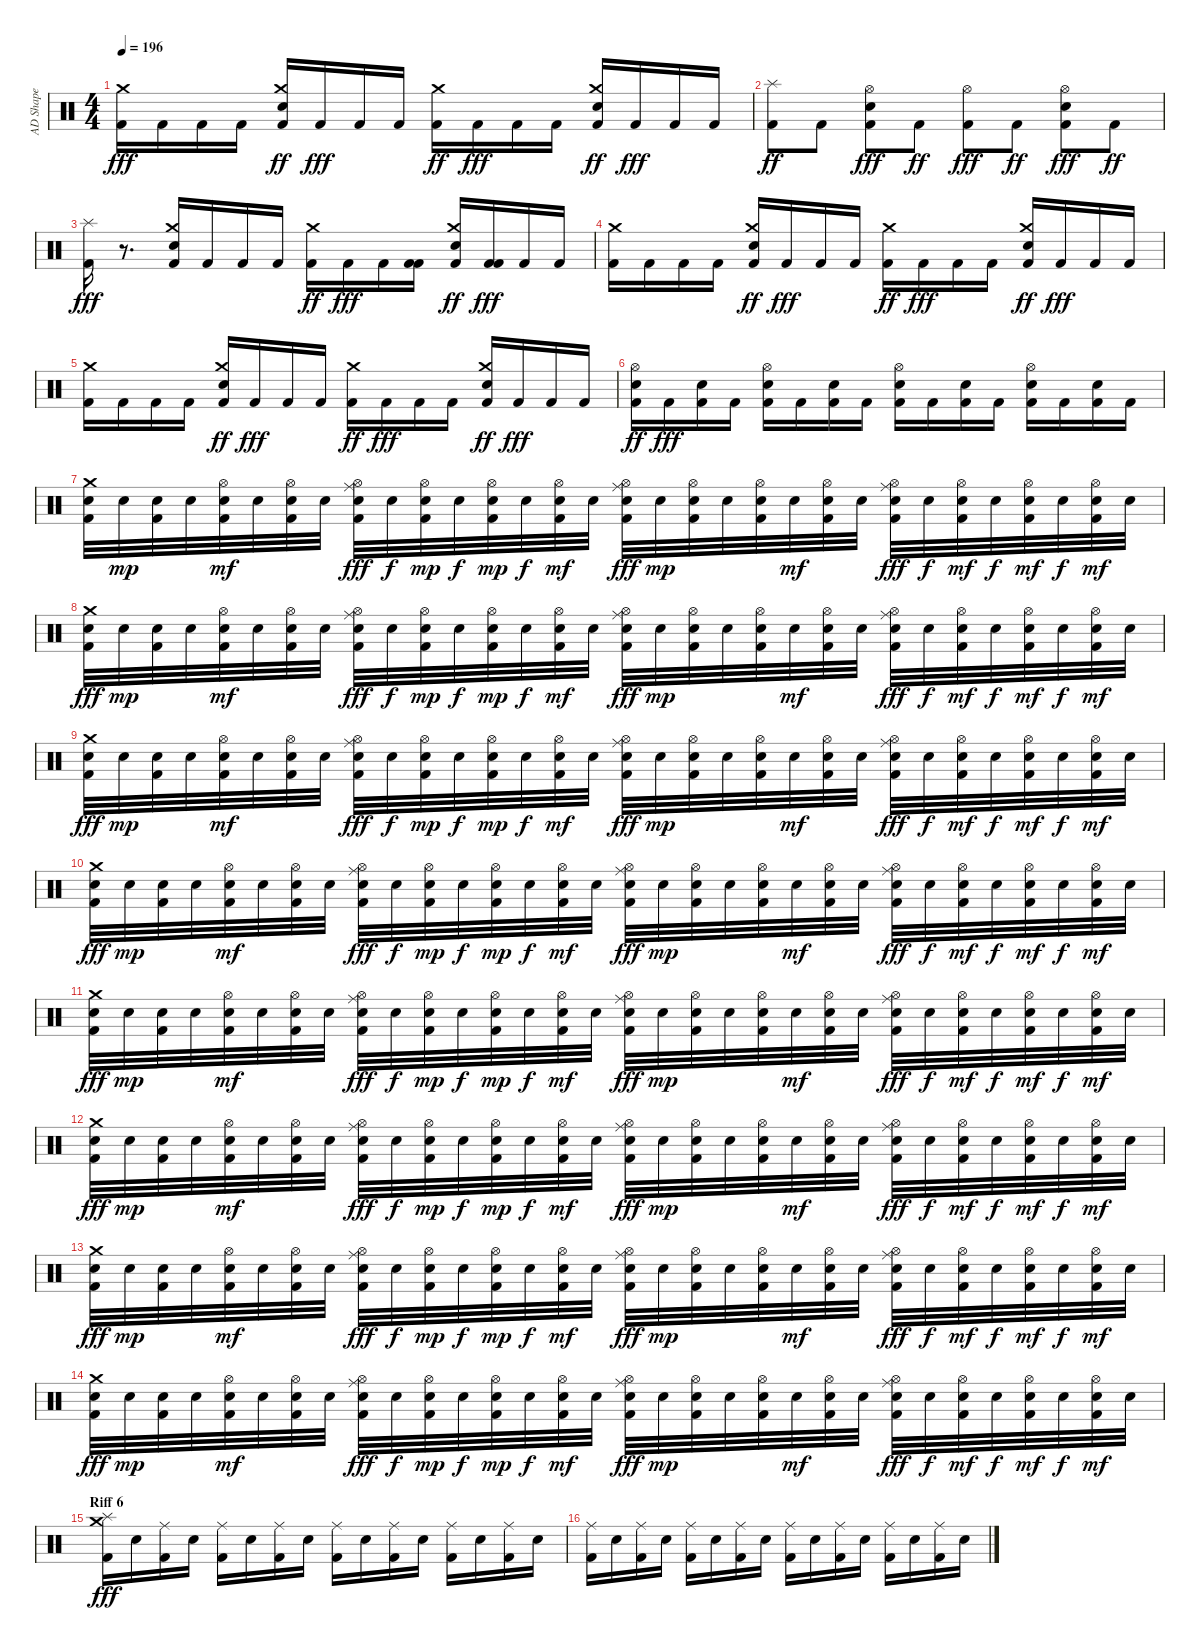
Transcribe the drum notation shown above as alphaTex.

\track ("AD Shape" "AD Shape") {instrument percussion}
\staff {score}
\articulation defaults
\ts (4 4)
\tempo 196
\clef neutral
\ks c
("Kick (hit) 2" "Crash medium (hit)").16{dy fff} "Kick (hit) 2".16 "Kick (hit) 2".16 "Kick (hit) 2".16 ("Kick (hit) 2" "Snare (hit) 2" "Crash medium (hit)").16{dy ff} "Kick (hit) 2".16{dy fff} "Kick (hit) 2".16 "Kick (hit) 2".16 ("Kick (hit) 2" "Crash medium (hit)").16{dy ff} "Kick (hit) 2".16{dy fff} "Kick (hit) 2".16 "Kick (hit) 2".16 ("Kick (hit) 2" "Snare (hit) 2" "Crash medium (hit)").16{dy ff} "Kick (hit) 2".16{dy fff} "Kick (hit) 2".16 "Kick (hit) 2".16 |
("Kick (hit) 2" "Splash (hit)").8{dy ff} "Kick (hit) 2".8 ("Kick (hit) 2" "Snare (hit) 2" "Hi-Hat (open)").8{dy fff} "Kick (hit) 2".8{dy ff} ("Kick (hit) 2" "Hi-Hat (open)").8{dy fff} "Kick (hit) 2".8{dy ff} ("Kick (hit) 2" "Snare (hit) 2" "Hi-Hat (open)").8{dy fff} "Kick (hit) 2".8{dy ff} |
("Kick (hit) 2" "Splash (hit)").16{dy fff} r.8{d} ("Kick (hit) 2" "Snare (hit) 2" "Crash medium (hit)").16 "Kick (hit) 2".16 "Kick (hit) 2".16 "Kick (hit) 2".16 ("Kick (hit) 2" "Crash medium (hit)").16{dy ff} "Kick (hit) 2".16{dy fff} "Kick (hit) 2".16 ("Kick (hit) 2" "Kick (hit) 2").16 ("Kick (hit) 2" "Snare (hit) 2" "Crash medium (hit)").16{dy ff} ("Kick (hit) 2" "Kick (hit) 2").16{dy fff} "Kick (hit) 2".16 "Kick (hit) 2".16 |
("Kick (hit) 2" "Crash medium (hit)").16 "Kick (hit) 2".16 "Kick (hit) 2".16 "Kick (hit) 2".16 ("Kick (hit) 2" "Snare (hit) 2" "Crash medium (hit)").16{dy ff} "Kick (hit) 2".16{dy fff} "Kick (hit) 2".16 "Kick (hit) 2".16 ("Kick (hit) 2" "Crash medium (hit)").16{dy ff} "Kick (hit) 2".16{dy fff} "Kick (hit) 2".16 "Kick (hit) 2".16 ("Kick (hit) 2" "Snare (hit) 2" "Crash medium (hit)").16{dy ff} "Kick (hit) 2".16{dy fff} "Kick (hit) 2".16 "Kick (hit) 2".16 |
("Kick (hit) 2" "Crash medium (hit)").16 "Kick (hit) 2".16 "Kick (hit) 2".16 "Kick (hit) 2".16 ("Kick (hit) 2" "Snare (hit) 2" "Crash medium (hit)").16{dy ff} "Kick (hit) 2".16{dy fff} "Kick (hit) 2".16 "Kick (hit) 2".16 ("Kick (hit) 2" "Crash medium (hit)").16{dy ff} "Kick (hit) 2".16{dy fff} "Kick (hit) 2".16 "Kick (hit) 2".16 ("Kick (hit) 2" "Snare (hit) 2" "Crash medium (hit)").16{dy ff} "Kick (hit) 2".16{dy fff} "Kick (hit) 2".16 "Kick (hit) 2".16 |
("Kick (hit) 2" "Snare (hit) 2" "Hi-Hat (open)").16{dy ff} "Kick (hit) 2".16{dy fff} ("Kick (hit) 2" "Snare (hit) 2").16 "Kick (hit) 2".16 ("Kick (hit) 2" "Snare (hit) 2" "Hi-Hat (open)").16 "Kick (hit) 2".16 ("Kick (hit) 2" "Snare (hit) 2").16 "Kick (hit) 2".16 ("Kick (hit) 2" "Snare (hit) 2" "Hi-Hat (open)").16 "Kick (hit) 2".16 ("Kick (hit) 2" "Snare (hit) 2").16 "Kick (hit) 2".16 ("Kick (hit) 2" "Snare (hit) 2" "Hi-Hat (open)").16 "Kick (hit) 2".16 ("Kick (hit) 2" "Snare (hit) 2").16 "Kick (hit) 2".16 |
("Kick (hit) 2" "Snare (hit) 2" "Crash medium (hit)").32 "Snare (hit) 2".32{dy mp} ("Kick (hit) 2" "Snare (hit) 2").32 "Snare (hit) 2".32 ("Kick (hit) 2" "Snare (hit) 2" "Hi-Hat (open)").32{dy mf} "Snare (hit) 2".32 ("Kick (hit) 2" "Snare (hit) 2" "Hi-Hat (open)").32 "Snare (hit) 2".32 ("Kick (hit) 2" "Snare (hit) 2" "Hi-Hat (open)" "Ride (middle)").32{dy fff} "Snare (hit) 2".32{dy f} ("Kick (hit) 2" "Snare (hit) 2" "Hi-Hat (open)").32{dy mp} "Snare (hit) 2".32{dy f} ("Kick (hit) 2" "Snare (hit) 2" "Hi-Hat (open)").32{dy mp} "Snare (hit) 2".32{dy f} ("Kick (hit) 2" "Snare (hit) 2" "Hi-Hat (open)").32{dy mf} "Snare (hit) 2".32 ("Kick (hit) 2" "Snare (hit) 2" "Hi-Hat (open)" "Ride (middle)").32{dy fff} "Snare (hit) 2".32{dy mp} ("Kick (hit) 2" "Snare (hit) 2" "Hi-Hat (open)").32 "Snare (hit) 2".32 ("Kick (hit) 2" "Snare (hit) 2" "Hi-Hat (open)").32 "Snare (hit) 2".32{dy mf} ("Kick (hit) 2" "Snare (hit) 2" "Hi-Hat (open)").32 "Snare (hit) 2".32 ("Kick (hit) 2" "Snare (hit) 2" "Hi-Hat (open)" "Ride (middle)").32{dy fff} "Snare (hit) 2".32{dy f} ("Kick (hit) 2" "Snare (hit) 2" "Hi-Hat (open)").32{dy mf} "Snare (hit) 2".32{dy f} ("Kick (hit) 2" "Snare (hit) 2" "Hi-Hat (open)").32{dy mf} "Snare (hit) 2".32{dy f} ("Kick (hit) 2" "Snare (hit) 2" "Hi-Hat (open)").32{dy mf} "Snare (hit) 2".32 |
("Kick (hit) 2" "Snare (hit) 2" "Crash medium (hit)").32{dy fff} "Snare (hit) 2".32{dy mp} ("Kick (hit) 2" "Snare (hit) 2").32 "Snare (hit) 2".32 ("Kick (hit) 2" "Snare (hit) 2" "Hi-Hat (open)").32{dy mf} "Snare (hit) 2".32 ("Kick (hit) 2" "Snare (hit) 2" "Hi-Hat (open)").32 "Snare (hit) 2".32 ("Kick (hit) 2" "Snare (hit) 2" "Hi-Hat (open)" "Ride (middle)").32{dy fff} "Snare (hit) 2".32{dy f} ("Kick (hit) 2" "Snare (hit) 2" "Hi-Hat (open)").32{dy mp} "Snare (hit) 2".32{dy f} ("Kick (hit) 2" "Snare (hit) 2" "Hi-Hat (open)").32{dy mp} "Snare (hit) 2".32{dy f} ("Kick (hit) 2" "Snare (hit) 2" "Hi-Hat (open)").32{dy mf} "Snare (hit) 2".32 ("Kick (hit) 2" "Snare (hit) 2" "Hi-Hat (open)" "Ride (middle)").32{dy fff} "Snare (hit) 2".32{dy mp} ("Kick (hit) 2" "Snare (hit) 2" "Hi-Hat (open)").32 "Snare (hit) 2".32 ("Kick (hit) 2" "Snare (hit) 2" "Hi-Hat (open)").32 "Snare (hit) 2".32{dy mf} ("Kick (hit) 2" "Snare (hit) 2" "Hi-Hat (open)").32 "Snare (hit) 2".32 ("Kick (hit) 2" "Snare (hit) 2" "Hi-Hat (open)" "Ride (middle)").32{dy fff} "Snare (hit) 2".32{dy f} ("Kick (hit) 2" "Snare (hit) 2" "Hi-Hat (open)").32{dy mf} "Snare (hit) 2".32{dy f} ("Kick (hit) 2" "Snare (hit) 2" "Hi-Hat (open)").32{dy mf} "Snare (hit) 2".32{dy f} ("Kick (hit) 2" "Snare (hit) 2" "Hi-Hat (open)").32{dy mf} "Snare (hit) 2".32 |
("Kick (hit) 2" "Snare (hit) 2" "Crash medium (hit)").32{dy fff} "Snare (hit) 2".32{dy mp} ("Kick (hit) 2" "Snare (hit) 2").32 "Snare (hit) 2".32 ("Kick (hit) 2" "Snare (hit) 2" "Hi-Hat (open)").32{dy mf} "Snare (hit) 2".32 ("Kick (hit) 2" "Snare (hit) 2" "Hi-Hat (open)").32 "Snare (hit) 2".32 ("Kick (hit) 2" "Snare (hit) 2" "Hi-Hat (open)" "Ride (middle)").32{dy fff} "Snare (hit) 2".32{dy f} ("Kick (hit) 2" "Snare (hit) 2" "Hi-Hat (open)").32{dy mp} "Snare (hit) 2".32{dy f} ("Kick (hit) 2" "Snare (hit) 2" "Hi-Hat (open)").32{dy mp} "Snare (hit) 2".32{dy f} ("Kick (hit) 2" "Snare (hit) 2" "Hi-Hat (open)").32{dy mf} "Snare (hit) 2".32 ("Kick (hit) 2" "Snare (hit) 2" "Hi-Hat (open)" "Ride (middle)").32{dy fff} "Snare (hit) 2".32{dy mp} ("Kick (hit) 2" "Snare (hit) 2" "Hi-Hat (open)").32 "Snare (hit) 2".32 ("Kick (hit) 2" "Snare (hit) 2" "Hi-Hat (open)").32 "Snare (hit) 2".32{dy mf} ("Kick (hit) 2" "Snare (hit) 2" "Hi-Hat (open)").32 "Snare (hit) 2".32 ("Kick (hit) 2" "Snare (hit) 2" "Hi-Hat (open)" "Ride (middle)").32{dy fff} "Snare (hit) 2".32{dy f} ("Kick (hit) 2" "Snare (hit) 2" "Hi-Hat (open)").32{dy mf} "Snare (hit) 2".32{dy f} ("Kick (hit) 2" "Snare (hit) 2" "Hi-Hat (open)").32{dy mf} "Snare (hit) 2".32{dy f} ("Kick (hit) 2" "Snare (hit) 2" "Hi-Hat (open)").32{dy mf} "Snare (hit) 2".32 |
("Kick (hit) 2" "Snare (hit) 2" "Crash medium (hit)").32{dy fff} "Snare (hit) 2".32{dy mp} ("Kick (hit) 2" "Snare (hit) 2").32 "Snare (hit) 2".32 ("Kick (hit) 2" "Snare (hit) 2" "Hi-Hat (open)").32{dy mf} "Snare (hit) 2".32 ("Kick (hit) 2" "Snare (hit) 2" "Hi-Hat (open)").32 "Snare (hit) 2".32 ("Kick (hit) 2" "Snare (hit) 2" "Hi-Hat (open)" "Ride (middle)").32{dy fff} "Snare (hit) 2".32{dy f} ("Kick (hit) 2" "Snare (hit) 2" "Hi-Hat (open)").32{dy mp} "Snare (hit) 2".32{dy f} ("Kick (hit) 2" "Snare (hit) 2" "Hi-Hat (open)").32{dy mp} "Snare (hit) 2".32{dy f} ("Kick (hit) 2" "Snare (hit) 2" "Hi-Hat (open)").32{dy mf} "Snare (hit) 2".32 ("Kick (hit) 2" "Snare (hit) 2" "Hi-Hat (open)" "Ride (middle)").32{dy fff} "Snare (hit) 2".32{dy mp} ("Kick (hit) 2" "Snare (hit) 2" "Hi-Hat (open)").32 "Snare (hit) 2".32 ("Kick (hit) 2" "Snare (hit) 2" "Hi-Hat (open)").32 "Snare (hit) 2".32{dy mf} ("Kick (hit) 2" "Snare (hit) 2" "Hi-Hat (open)").32 "Snare (hit) 2".32 ("Kick (hit) 2" "Snare (hit) 2" "Hi-Hat (open)" "Ride (middle)").32{dy fff} "Snare (hit) 2".32{dy f} ("Kick (hit) 2" "Snare (hit) 2" "Hi-Hat (open)").32{dy mf} "Snare (hit) 2".32{dy f} ("Kick (hit) 2" "Snare (hit) 2" "Hi-Hat (open)").32{dy mf} "Snare (hit) 2".32{dy f} ("Kick (hit) 2" "Snare (hit) 2" "Hi-Hat (open)").32{dy mf} "Snare (hit) 2".32 |
("Kick (hit) 2" "Snare (hit) 2" "Crash medium (hit)").32{dy fff} "Snare (hit) 2".32{dy mp} ("Kick (hit) 2" "Snare (hit) 2").32 "Snare (hit) 2".32 ("Kick (hit) 2" "Snare (hit) 2" "Hi-Hat (open)").32{dy mf} "Snare (hit) 2".32 ("Kick (hit) 2" "Snare (hit) 2" "Hi-Hat (open)").32 "Snare (hit) 2".32 ("Kick (hit) 2" "Snare (hit) 2" "Hi-Hat (open)" "Ride (middle)").32{dy fff} "Snare (hit) 2".32{dy f} ("Kick (hit) 2" "Snare (hit) 2" "Hi-Hat (open)").32{dy mp} "Snare (hit) 2".32{dy f} ("Kick (hit) 2" "Snare (hit) 2" "Hi-Hat (open)").32{dy mp} "Snare (hit) 2".32{dy f} ("Kick (hit) 2" "Snare (hit) 2" "Hi-Hat (open)").32{dy mf} "Snare (hit) 2".32 ("Kick (hit) 2" "Snare (hit) 2" "Hi-Hat (open)" "Ride (middle)").32{dy fff} "Snare (hit) 2".32{dy mp} ("Kick (hit) 2" "Snare (hit) 2" "Hi-Hat (open)").32 "Snare (hit) 2".32 ("Kick (hit) 2" "Snare (hit) 2" "Hi-Hat (open)").32 "Snare (hit) 2".32{dy mf} ("Kick (hit) 2" "Snare (hit) 2" "Hi-Hat (open)").32 "Snare (hit) 2".32 ("Kick (hit) 2" "Snare (hit) 2" "Hi-Hat (open)" "Ride (middle)").32{dy fff} "Snare (hit) 2".32{dy f} ("Kick (hit) 2" "Snare (hit) 2" "Hi-Hat (open)").32{dy mf} "Snare (hit) 2".32{dy f} ("Kick (hit) 2" "Snare (hit) 2" "Hi-Hat (open)").32{dy mf} "Snare (hit) 2".32{dy f} ("Kick (hit) 2" "Snare (hit) 2" "Hi-Hat (open)").32{dy mf} "Snare (hit) 2".32 |
("Kick (hit) 2" "Snare (hit) 2" "Crash medium (hit)").32{dy fff} "Snare (hit) 2".32{dy mp} ("Kick (hit) 2" "Snare (hit) 2").32 "Snare (hit) 2".32 ("Kick (hit) 2" "Snare (hit) 2" "Hi-Hat (open)").32{dy mf} "Snare (hit) 2".32 ("Kick (hit) 2" "Snare (hit) 2" "Hi-Hat (open)").32 "Snare (hit) 2".32 ("Kick (hit) 2" "Snare (hit) 2" "Hi-Hat (open)" "Ride (middle)").32{dy fff} "Snare (hit) 2".32{dy f} ("Kick (hit) 2" "Snare (hit) 2" "Hi-Hat (open)").32{dy mp} "Snare (hit) 2".32{dy f} ("Kick (hit) 2" "Snare (hit) 2" "Hi-Hat (open)").32{dy mp} "Snare (hit) 2".32{dy f} ("Kick (hit) 2" "Snare (hit) 2" "Hi-Hat (open)").32{dy mf} "Snare (hit) 2".32 ("Kick (hit) 2" "Snare (hit) 2" "Hi-Hat (open)" "Ride (middle)").32{dy fff} "Snare (hit) 2".32{dy mp} ("Kick (hit) 2" "Snare (hit) 2" "Hi-Hat (open)").32 "Snare (hit) 2".32 ("Kick (hit) 2" "Snare (hit) 2" "Hi-Hat (open)").32 "Snare (hit) 2".32{dy mf} ("Kick (hit) 2" "Snare (hit) 2" "Hi-Hat (open)").32 "Snare (hit) 2".32 ("Kick (hit) 2" "Snare (hit) 2" "Hi-Hat (open)" "Ride (middle)").32{dy fff} "Snare (hit) 2".32{dy f} ("Kick (hit) 2" "Snare (hit) 2" "Hi-Hat (open)").32{dy mf} "Snare (hit) 2".32{dy f} ("Kick (hit) 2" "Snare (hit) 2" "Hi-Hat (open)").32{dy mf} "Snare (hit) 2".32{dy f} ("Kick (hit) 2" "Snare (hit) 2" "Hi-Hat (open)").32{dy mf} "Snare (hit) 2".32 |
("Kick (hit) 2" "Snare (hit) 2" "Crash medium (hit)").32{dy fff} "Snare (hit) 2".32{dy mp} ("Kick (hit) 2" "Snare (hit) 2").32 "Snare (hit) 2".32 ("Kick (hit) 2" "Snare (hit) 2" "Hi-Hat (open)").32{dy mf} "Snare (hit) 2".32 ("Kick (hit) 2" "Snare (hit) 2" "Hi-Hat (open)").32 "Snare (hit) 2".32 ("Kick (hit) 2" "Snare (hit) 2" "Hi-Hat (open)" "Ride (middle)").32{dy fff} "Snare (hit) 2".32{dy f} ("Kick (hit) 2" "Snare (hit) 2" "Hi-Hat (open)").32{dy mp} "Snare (hit) 2".32{dy f} ("Kick (hit) 2" "Snare (hit) 2" "Hi-Hat (open)").32{dy mp} "Snare (hit) 2".32{dy f} ("Kick (hit) 2" "Snare (hit) 2" "Hi-Hat (open)").32{dy mf} "Snare (hit) 2".32 ("Kick (hit) 2" "Snare (hit) 2" "Hi-Hat (open)" "Ride (middle)").32{dy fff} "Snare (hit) 2".32{dy mp} ("Kick (hit) 2" "Snare (hit) 2" "Hi-Hat (open)").32 "Snare (hit) 2".32 ("Kick (hit) 2" "Snare (hit) 2" "Hi-Hat (open)").32 "Snare (hit) 2".32{dy mf} ("Kick (hit) 2" "Snare (hit) 2" "Hi-Hat (open)").32 "Snare (hit) 2".32 ("Kick (hit) 2" "Snare (hit) 2" "Hi-Hat (open)" "Ride (middle)").32{dy fff} "Snare (hit) 2".32{dy f} ("Kick (hit) 2" "Snare (hit) 2" "Hi-Hat (open)").32{dy mf} "Snare (hit) 2".32{dy f} ("Kick (hit) 2" "Snare (hit) 2" "Hi-Hat (open)").32{dy mf} "Snare (hit) 2".32{dy f} ("Kick (hit) 2" "Snare (hit) 2" "Hi-Hat (open)").32{dy mf} "Snare (hit) 2".32 |
("Kick (hit) 2" "Snare (hit) 2" "Crash medium (hit)").32{dy fff} "Snare (hit) 2".32{dy mp} ("Kick (hit) 2" "Snare (hit) 2").32 "Snare (hit) 2".32 ("Kick (hit) 2" "Snare (hit) 2" "Hi-Hat (open)").32{dy mf} "Snare (hit) 2".32 ("Kick (hit) 2" "Snare (hit) 2" "Hi-Hat (open)").32 "Snare (hit) 2".32 ("Kick (hit) 2" "Snare (hit) 2" "Hi-Hat (open)" "Ride (middle)").32{dy fff} "Snare (hit) 2".32{dy f} ("Kick (hit) 2" "Snare (hit) 2" "Hi-Hat (open)").32{dy mp} "Snare (hit) 2".32{dy f} ("Kick (hit) 2" "Snare (hit) 2" "Hi-Hat (open)").32{dy mp} "Snare (hit) 2".32{dy f} ("Kick (hit) 2" "Snare (hit) 2" "Hi-Hat (open)").32{dy mf} "Snare (hit) 2".32 ("Kick (hit) 2" "Snare (hit) 2" "Hi-Hat (open)" "Ride (middle)").32{dy fff} "Snare (hit) 2".32{dy mp} ("Kick (hit) 2" "Snare (hit) 2" "Hi-Hat (open)").32 "Snare (hit) 2".32 ("Kick (hit) 2" "Snare (hit) 2" "Hi-Hat (open)").32 "Snare (hit) 2".32{dy mf} ("Kick (hit) 2" "Snare (hit) 2" "Hi-Hat (open)").32 "Snare (hit) 2".32 ("Kick (hit) 2" "Snare (hit) 2" "Hi-Hat (open)" "Ride (middle)").32{dy fff} "Snare (hit) 2".32{dy f} ("Kick (hit) 2" "Snare (hit) 2" "Hi-Hat (open)").32{dy mf} "Snare (hit) 2".32{dy f} ("Kick (hit) 2" "Snare (hit) 2" "Hi-Hat (open)").32{dy mf} "Snare (hit) 2".32{dy f} ("Kick (hit) 2" "Snare (hit) 2" "Hi-Hat (open)").32{dy mf} "Snare (hit) 2".32 |
\section ("" "Riff 6")
("Kick (hit) 2" "Splash (hit)" "Crash medium (hit)").16{dy fff} "Snare (hit) 2".16 ("Kick (hit) 2" "Ride (middle)").16 "Snare (hit) 2".16 ("Kick (hit) 2" "Ride (middle)").16 "Snare (hit) 2".16 ("Kick (hit) 2" "Ride (middle)").16 "Snare (hit) 2".16 ("Kick (hit) 2" "Ride (middle)").16 "Snare (hit) 2".16 ("Kick (hit) 2" "Ride (middle)").16 "Snare (hit) 2".16 ("Kick (hit) 2" "Ride (middle)").16 "Snare (hit) 2".16 ("Kick (hit) 2" "Ride (middle)").16 "Snare (hit) 2".16 |
("Kick (hit) 2" "Ride (middle)").16 "Snare (hit) 2".16 ("Kick (hit) 2" "Ride (middle)").16 "Snare (hit) 2".16 ("Kick (hit) 2" "Ride (middle)").16 "Snare (hit) 2".16 ("Kick (hit) 2" "Ride (middle)").16 "Snare (hit) 2".16 ("Kick (hit) 2" "Ride (middle)").16 "Snare (hit) 2".16 ("Kick (hit) 2" "Ride (middle)").16 "Snare (hit) 2".16 ("Kick (hit) 2" "Ride (middle)").16 "Snare (hit) 2".16 ("Kick (hit) 2" "Ride (middle)").16 "Snare (hit) 2".16
